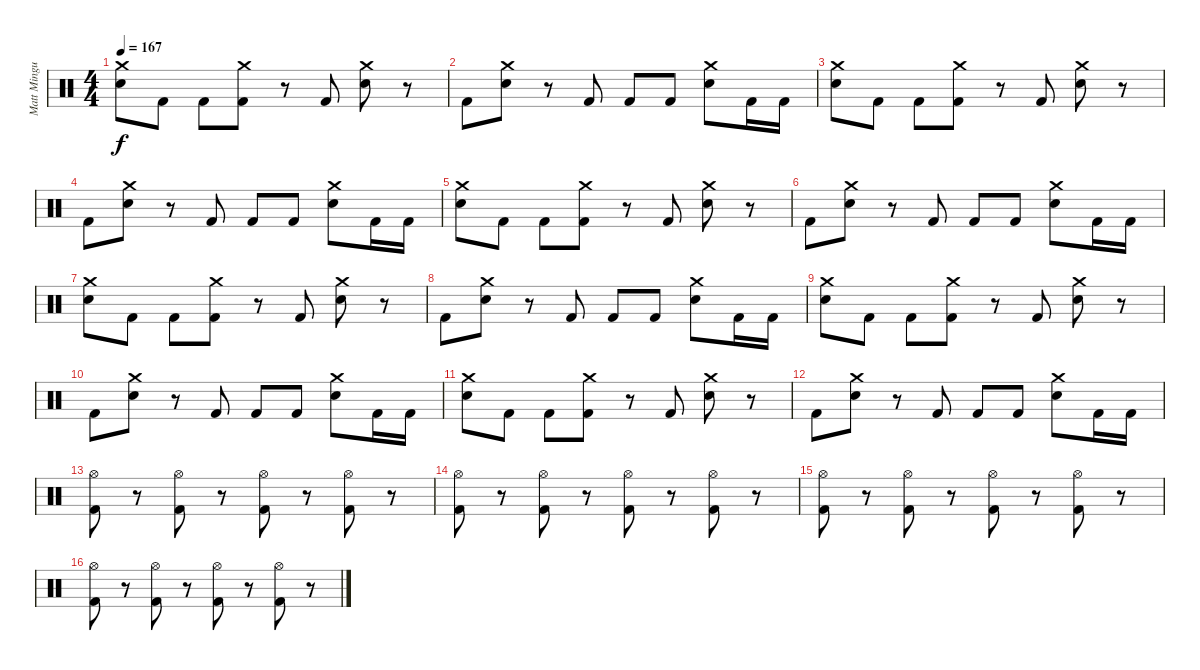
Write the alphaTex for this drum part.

\track ("Matt Mingus" "Matt Mingu") {instrument percussion}
\staff {score}
\articulation defaults
\ts (4 4)
\tempo 167
\clef neutral
\ks c
("Electric Snare (hit)" "Crash medium (hit)").8{dy f} "Kick (hit) 2".8 "Kick (hit) 2".8 ("Kick (hit) 2" "Crash medium (hit)").8 r.8 "Kick (hit) 2".8 ("Electric Snare (hit)" "Crash medium (hit)").8 r.8 |
"Kick (hit) 2".8 ("Electric Snare (hit)" "Crash medium (hit)").8 r.8 "Kick (hit) 2".8 "Kick (hit) 2".8 "Kick (hit) 2".8 ("Electric Snare (hit)" "Crash medium (hit)").8 "Kick (hit) 2".16 "Kick (hit) 2".16 |
("Electric Snare (hit)" "Crash medium (hit)").8 "Kick (hit) 2".8 "Kick (hit) 2".8 ("Kick (hit) 2" "Crash medium (hit)").8 r.8 "Kick (hit) 2".8 ("Electric Snare (hit)" "Crash medium (hit)").8 r.8 |
"Kick (hit) 2".8 ("Electric Snare (hit)" "Crash medium (hit)").8 r.8 "Kick (hit) 2".8 "Kick (hit) 2".8 "Kick (hit) 2".8 ("Electric Snare (hit)" "Crash medium (hit)").8 "Kick (hit) 2".16 "Kick (hit) 2".16 |
("Electric Snare (hit)" "Crash medium (hit)").8 "Kick (hit) 2".8 "Kick (hit) 2".8 ("Kick (hit) 2" "Crash medium (hit)").8 r.8 "Kick (hit) 2".8 ("Electric Snare (hit)" "Crash medium (hit)").8 r.8 |
"Kick (hit) 2".8 ("Electric Snare (hit)" "Crash medium (hit)").8 r.8 "Kick (hit) 2".8 "Kick (hit) 2".8 "Kick (hit) 2".8 ("Electric Snare (hit)" "Crash medium (hit)").8 "Kick (hit) 2".16 "Kick (hit) 2".16 |
("Electric Snare (hit)" "Crash medium (hit)").8 "Kick (hit) 2".8 "Kick (hit) 2".8 ("Kick (hit) 2" "Crash medium (hit)").8 r.8 "Kick (hit) 2".8 ("Electric Snare (hit)" "Crash medium (hit)").8 r.8 |
"Kick (hit) 2".8 ("Electric Snare (hit)" "Crash medium (hit)").8 r.8 "Kick (hit) 2".8 "Kick (hit) 2".8 "Kick (hit) 2".8 ("Electric Snare (hit)" "Crash medium (hit)").8 "Kick (hit) 2".16 "Kick (hit) 2".16 |
("Electric Snare (hit)" "Crash medium (hit)").8 "Kick (hit) 2".8 "Kick (hit) 2".8 ("Kick (hit) 2" "Crash medium (hit)").8 r.8 "Kick (hit) 2".8 ("Electric Snare (hit)" "Crash medium (hit)").8 r.8 |
"Kick (hit) 2".8 ("Electric Snare (hit)" "Crash medium (hit)").8 r.8 "Kick (hit) 2".8 "Kick (hit) 2".8 "Kick (hit) 2".8 ("Electric Snare (hit)" "Crash medium (hit)").8 "Kick (hit) 2".16 "Kick (hit) 2".16 |
("Electric Snare (hit)" "Crash medium (hit)").8 "Kick (hit) 2".8 "Kick (hit) 2".8 ("Kick (hit) 2" "Crash medium (hit)").8 r.8 "Kick (hit) 2".8 ("Electric Snare (hit)" "Crash medium (hit)").8 r.8 |
"Kick (hit) 2".8 ("Electric Snare (hit)" "Crash medium (hit)").8 r.8 "Kick (hit) 2".8 "Kick (hit) 2".8 "Kick (hit) 2".8 ("Electric Snare (hit)" "Crash medium (hit)").8 "Kick (hit) 2".16 "Kick (hit) 2".16 |
("Kick (hit) 2" "Hi-Hat (open)").8 r.8 ("Kick (hit) 2" "Hi-Hat (open)").8 r.8 ("Kick (hit) 2" "Hi-Hat (open)").8 r.8 ("Kick (hit) 2" "Hi-Hat (open)").8 r.8 |
("Kick (hit) 2" "Hi-Hat (open)").8 r.8 ("Kick (hit) 2" "Hi-Hat (open)").8 r.8 ("Kick (hit) 2" "Hi-Hat (open)").8 r.8 ("Kick (hit) 2" "Hi-Hat (open)").8 r.8 |
("Kick (hit) 2" "Hi-Hat (open)").8 r.8 ("Kick (hit) 2" "Hi-Hat (open)").8 r.8 ("Kick (hit) 2" "Hi-Hat (open)").8 r.8 ("Kick (hit) 2" "Hi-Hat (open)").8 r.8 |
("Kick (hit) 2" "Hi-Hat (open)").8 r.8 ("Kick (hit) 2" "Hi-Hat (open)").8 r.8 ("Kick (hit) 2" "Hi-Hat (open)").8 r.8 ("Kick (hit) 2" "Hi-Hat (open)").8 r.8
